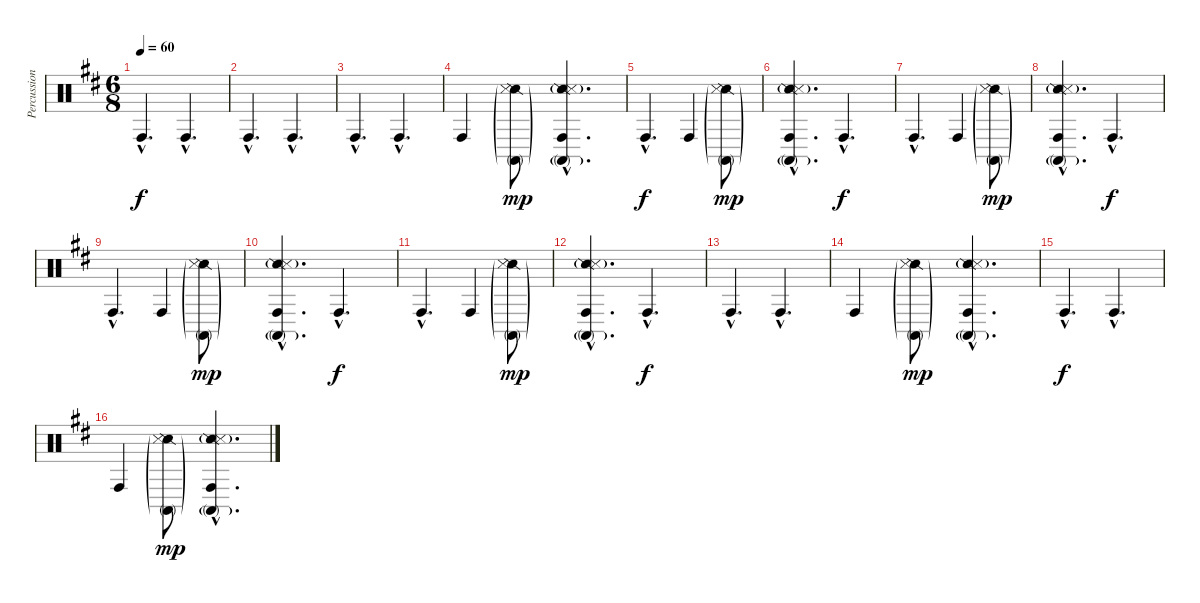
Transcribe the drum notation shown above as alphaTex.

\track ("Percussions" "Percussion") {instrument percussion}
\staff {score}
\articulation defaults
\ts (6 8)
\tempo 60
\clef neutral
\ks bminor "Conga high (hit)"{hac}.4{d dy f} "Conga high (hit)"{hac}.4{d}
|
"Conga high (hit)"{hac}.4{d} "Conga high (hit)"{hac}.4{d} |
"Conga high (hit)"{hac}.4{d} "Conga high (hit)"{hac}.4{d} |
"Conga high (hit)".4 ("Snare (side stick) 2"{g} "Conga high (mute)"{g} "Metronome (hit)"{g}).8{dy mp} ("Conga high (hit)"{hac} "Snare (side stick) 2"{g hac} "Conga high (mute)"{g hac} "Metronome (hit)"{g hac}).4{d} |
"Conga high (hit)"{hac}.4{d dy f} "Conga high (hit)".4 ("Snare (side stick) 2"{g} "Conga high (mute)"{g} "Metronome (hit)"{g}).8{dy mp} |
("Conga high (hit)"{hac} "Snare (side stick) 2"{g hac} "Conga high (mute)"{g hac} "Metronome (hit)"{g hac}).4{d} "Conga high (hit)"{hac}.4{d dy f} |
"Conga high (hit)"{hac}.4{d} "Conga high (hit)".4 ("Snare (side stick) 2"{g} "Conga high (mute)"{g} "Metronome (hit)"{g}).8{dy mp} |
("Conga high (hit)"{hac} "Snare (side stick) 2"{g hac} "Conga high (mute)"{g hac} "Metronome (hit)"{g hac}).4{d} "Conga high (hit)"{hac}.4{d dy f} |
"Conga high (hit)"{hac}.4{d} "Conga high (hit)".4 ("Snare (side stick) 2"{g} "Conga high (mute)"{g} "Metronome (hit)"{g}).8{dy mp} |
("Conga high (hit)"{hac} "Snare (side stick) 2"{g hac} "Conga high (mute)"{g hac} "Metronome (hit)"{g hac}).4{d} "Conga high (hit)"{hac}.4{d dy f} |
"Conga high (hit)"{hac}.4{d} "Conga high (hit)".4 ("Snare (side stick) 2"{g} "Conga high (mute)"{g} "Metronome (hit)"{g}).8{dy mp} |
("Conga high (hit)"{hac} "Snare (side stick) 2"{g hac} "Conga high (mute)"{g hac} "Metronome (hit)"{g hac}).4{d} "Conga high (hit)"{hac}.4{d dy f} |
"Conga high (hit)"{hac}.4{d} "Conga high (hit)"{hac}.4{d} |
"Conga high (hit)".4 ("Snare (side stick) 2"{g} "Conga high (mute)"{g} "Metronome (hit)"{g}).8{dy mp} ("Conga high (hit)"{hac} "Snare (side stick) 2"{g hac} "Conga high (mute)"{g hac} "Metronome (hit)"{g hac}).4{d} |
"Conga high (hit)"{hac}.4{d dy f} "Conga high (hit)"{hac}.4{d} |
"Conga high (hit)".4 ("Snare (side stick) 2"{g} "Conga high (mute)"{g} "Metronome (hit)"{g}).8{dy mp} ("Conga high (hit)"{hac} "Snare (side stick) 2"{g hac} "Conga high (mute)"{g hac} "Metronome (hit)"{g hac}).4{d}
